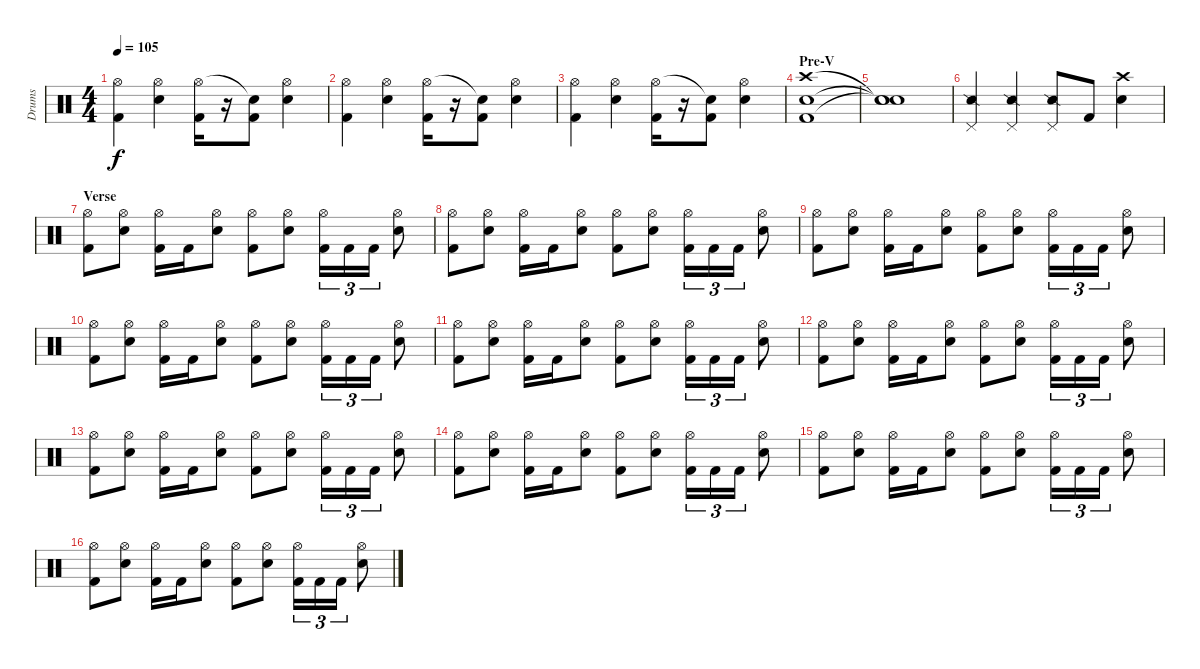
\track ("Drums" "Drums") {instrument percussion}
\staff {score}
\articulation defaults
\ts (4 4)
\tempo 105
\clef neutral
\ks c
("Hi-Hat (open)" "Kick (hit) 2").4{dy f} ("Hi-Hat (open)" "Electric Snare (hit)").4 ("Hi-Hat (open)" "Kick (hit) 2").16 r.16 ("Snare (hit)"{t} "Kick (hit) 2").8 ("Hi-Hat (open)" "Electric Snare (hit)").4 |
("Hi-Hat (open)" "Kick (hit) 2").4 ("Hi-Hat (open)" "Electric Snare (hit)").4 ("Hi-Hat (open)" "Kick (hit) 2").16 r.16 ("Snare (hit)"{t} "Kick (hit) 2").8 ("Hi-Hat (open)" "Electric Snare (hit)").4 |
("Hi-Hat (open)" "Kick (hit) 2").4 ("Hi-Hat (open)" "Electric Snare (hit)").4 ("Hi-Hat (open)" "Kick (hit) 2").16 r.16 ("Snare (hit)"{t} "Kick (hit) 2").8 ("Hi-Hat (open)" "Electric Snare (hit)").4 |
\section ("" "Pre-V")
("Crash high (hit)" "Electric Snare (hit)" "Kick (hit) 2").1 |
("Snare (hit)"{t} "Snare (hit)"{t} "Snare (hit)"{t}).1 |
("Snare (side stick) 2" "Pedal Hi-Hat (hit)").4 ("Snare (side stick) 2" "Pedal Hi-Hat (hit)").4 ("Snare (side stick) 2" "Pedal Hi-Hat (hit)").8 "Kick (hit) 2".8 ("Crash high (hit)" "Electric Snare (hit)").4 |
\section ("" "Verse")
("Hi-Hat (open)" "Kick (hit) 2").8 ("Hi-Hat (open)" "Electric Snare (hit)").8 ("Hi-Hat (open)" "Kick (hit) 2").16 "Kick (hit) 2".16 ("Hi-Hat (open)" "Electric Snare (hit)").8 ("Hi-Hat (open)" "Kick (hit) 2").8 ("Hi-Hat (open)" "Electric Snare (hit)").8 ("Hi-Hat (open)" "Kick (hit) 2").16{tu (3 2)} "Kick (hit) 2".16{tu (3 2)} "Kick (hit) 2".16{tu (3 2)} ("Hi-Hat (open)" "Electric Snare (hit)").8 |
("Hi-Hat (open)" "Kick (hit) 2").8 ("Hi-Hat (open)" "Electric Snare (hit)").8 ("Hi-Hat (open)" "Kick (hit) 2").16 "Kick (hit) 2".16 ("Hi-Hat (open)" "Electric Snare (hit)").8 ("Hi-Hat (open)" "Kick (hit) 2").8 ("Hi-Hat (open)" "Electric Snare (hit)").8 ("Hi-Hat (open)" "Kick (hit) 2").16{tu (3 2)} "Kick (hit) 2".16{tu (3 2)} "Kick (hit) 2".16{tu (3 2)} ("Hi-Hat (open)" "Electric Snare (hit)").8 |
("Hi-Hat (open)" "Kick (hit) 2").8 ("Hi-Hat (open)" "Electric Snare (hit)").8 ("Hi-Hat (open)" "Kick (hit) 2").16 "Kick (hit) 2".16 ("Hi-Hat (open)" "Electric Snare (hit)").8 ("Hi-Hat (open)" "Kick (hit) 2").8 ("Hi-Hat (open)" "Electric Snare (hit)").8 ("Hi-Hat (open)" "Kick (hit) 2").16{tu (3 2)} "Kick (hit) 2".16{tu (3 2)} "Kick (hit) 2".16{tu (3 2)} ("Hi-Hat (open)" "Electric Snare (hit)").8 |
("Hi-Hat (open)" "Kick (hit) 2").8 ("Hi-Hat (open)" "Electric Snare (hit)").8 ("Hi-Hat (open)" "Kick (hit) 2").16 "Kick (hit) 2".16 ("Hi-Hat (open)" "Electric Snare (hit)").8 ("Hi-Hat (open)" "Kick (hit) 2").8 ("Hi-Hat (open)" "Electric Snare (hit)").8 ("Hi-Hat (open)" "Kick (hit) 2").16{tu (3 2)} "Kick (hit) 2".16{tu (3 2)} "Kick (hit) 2".16{tu (3 2)} ("Hi-Hat (open)" "Electric Snare (hit)").8 |
("Hi-Hat (open)" "Kick (hit) 2").8 ("Hi-Hat (open)" "Electric Snare (hit)").8 ("Hi-Hat (open)" "Kick (hit) 2").16 "Kick (hit) 2".16 ("Hi-Hat (open)" "Electric Snare (hit)").8 ("Hi-Hat (open)" "Kick (hit) 2").8 ("Hi-Hat (open)" "Electric Snare (hit)").8 ("Hi-Hat (open)" "Kick (hit) 2").16{tu (3 2)} "Kick (hit) 2".16{tu (3 2)} "Kick (hit) 2".16{tu (3 2)} ("Hi-Hat (open)" "Electric Snare (hit)").8 |
("Hi-Hat (open)" "Kick (hit) 2").8 ("Hi-Hat (open)" "Electric Snare (hit)").8 ("Hi-Hat (open)" "Kick (hit) 2").16 "Kick (hit) 2".16 ("Hi-Hat (open)" "Electric Snare (hit)").8 ("Hi-Hat (open)" "Kick (hit) 2").8 ("Hi-Hat (open)" "Electric Snare (hit)").8 ("Hi-Hat (open)" "Kick (hit) 2").16{tu (3 2)} "Kick (hit) 2".16{tu (3 2)} "Kick (hit) 2".16{tu (3 2)} ("Hi-Hat (open)" "Electric Snare (hit)").8 |
("Hi-Hat (open)" "Kick (hit) 2").8 ("Hi-Hat (open)" "Electric Snare (hit)").8 ("Hi-Hat (open)" "Kick (hit) 2").16 "Kick (hit) 2".16 ("Hi-Hat (open)" "Electric Snare (hit)").8 ("Hi-Hat (open)" "Kick (hit) 2").8 ("Hi-Hat (open)" "Electric Snare (hit)").8 ("Hi-Hat (open)" "Kick (hit) 2").16{tu (3 2)} "Kick (hit) 2".16{tu (3 2)} "Kick (hit) 2".16{tu (3 2)} ("Hi-Hat (open)" "Electric Snare (hit)").8 |
("Hi-Hat (open)" "Kick (hit) 2").8 ("Hi-Hat (open)" "Electric Snare (hit)").8 ("Hi-Hat (open)" "Kick (hit) 2").16 "Kick (hit) 2".16 ("Hi-Hat (open)" "Electric Snare (hit)").8 ("Hi-Hat (open)" "Kick (hit) 2").8 ("Hi-Hat (open)" "Electric Snare (hit)").8 ("Hi-Hat (open)" "Kick (hit) 2").16{tu (3 2)} "Kick (hit) 2".16{tu (3 2)} "Kick (hit) 2".16{tu (3 2)} ("Hi-Hat (open)" "Electric Snare (hit)").8 |
("Hi-Hat (open)" "Kick (hit) 2").8 ("Hi-Hat (open)" "Electric Snare (hit)").8 ("Hi-Hat (open)" "Kick (hit) 2").16 "Kick (hit) 2".16 ("Hi-Hat (open)" "Electric Snare (hit)").8 ("Hi-Hat (open)" "Kick (hit) 2").8 ("Hi-Hat (open)" "Electric Snare (hit)").8 ("Hi-Hat (open)" "Kick (hit) 2").16{tu (3 2)} "Kick (hit) 2".16{tu (3 2)} "Kick (hit) 2".16{tu (3 2)} ("Hi-Hat (open)" "Electric Snare (hit)").8 |
("Hi-Hat (open)" "Kick (hit) 2").8 ("Hi-Hat (open)" "Electric Snare (hit)").8 ("Hi-Hat (open)" "Kick (hit) 2").16 "Kick (hit) 2".16 ("Hi-Hat (open)" "Electric Snare (hit)").8 ("Hi-Hat (open)" "Kick (hit) 2").8 ("Hi-Hat (open)" "Electric Snare (hit)").8 ("Hi-Hat (open)" "Kick (hit) 2").16{tu (3 2)} "Kick (hit) 2".16{tu (3 2)} "Kick (hit) 2".16{tu (3 2)} ("Hi-Hat (open)" "Electric Snare (hit)").8
